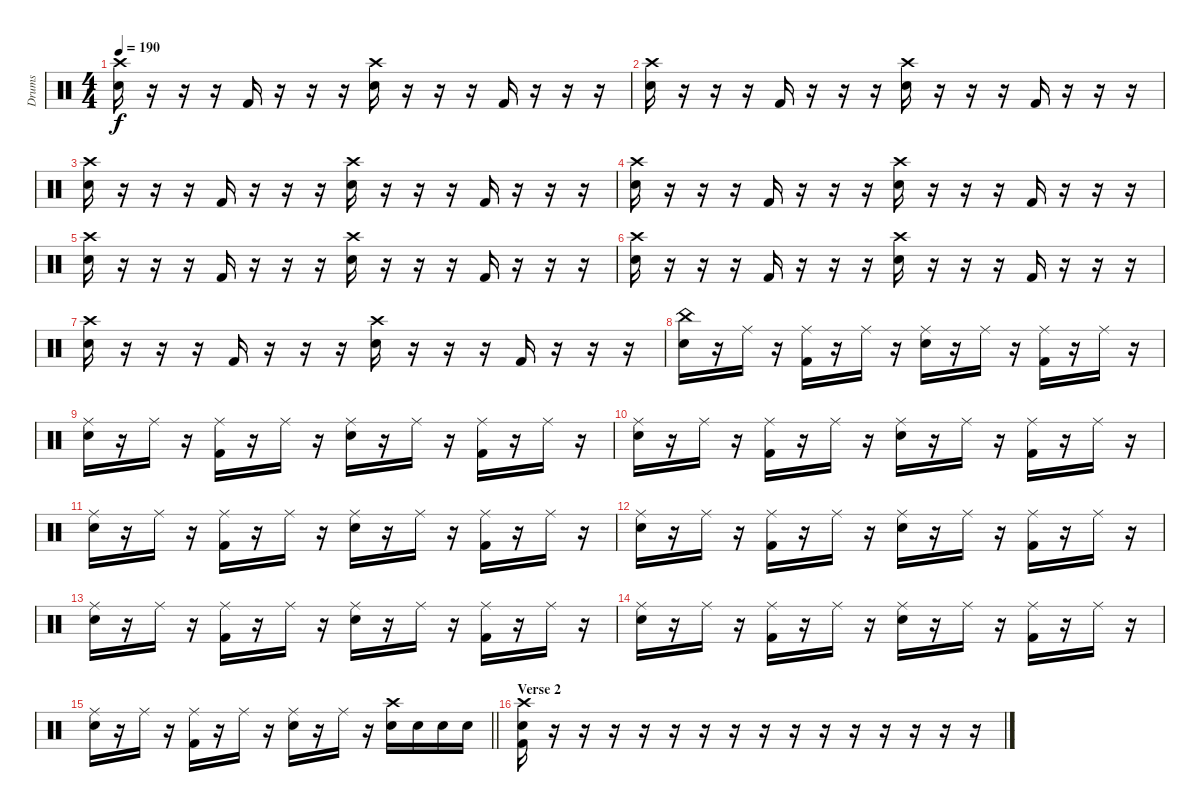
\track ("Drums" "Drums") {instrument percussion}
\staff {score}
\articulation defaults
\ts (4 4)
\tempo 190
\clef neutral
\ks c
("Crash high (hit)" "Electric Snare (hit)").16{dy f} r.16 r.16 r.16 "Kick (hit) 2".16 r.16 r.16 r.16 ("Crash high (hit)" "Electric Snare (hit)").16 r.16 r.16 r.16 "Kick (hit) 2".16 r.16 r.16 r.16 |
("Crash high (hit)" "Electric Snare (hit)").16 r.16 r.16 r.16 "Kick (hit) 2".16 r.16 r.16 r.16 ("Crash high (hit)" "Electric Snare (hit)").16 r.16 r.16 r.16 "Kick (hit) 2".16 r.16 r.16 r.16 |
("Crash high (hit)" "Electric Snare (hit)").16 r.16 r.16 r.16 "Kick (hit) 2".16 r.16 r.16 r.16 ("Crash high (hit)" "Electric Snare (hit)").16 r.16 r.16 r.16 "Kick (hit) 2".16 r.16 r.16 r.16 |
("Crash high (hit)" "Electric Snare (hit)").16 r.16 r.16 r.16 "Kick (hit) 2".16 r.16 r.16 r.16 ("Crash high (hit)" "Electric Snare (hit)").16 r.16 r.16 r.16 "Kick (hit) 2".16 r.16 r.16 r.16 |
("Crash high (hit)" "Electric Snare (hit)").16 r.16 r.16 r.16 "Kick (hit) 2".16 r.16 r.16 r.16 ("Crash high (hit)" "Electric Snare (hit)").16 r.16 r.16 r.16 "Kick (hit) 2".16 r.16 r.16 r.16 |
("Crash high (hit)" "Electric Snare (hit)").16 r.16 r.16 r.16 "Kick (hit) 2".16 r.16 r.16 r.16 ("Crash high (hit)" "Electric Snare (hit)").16 r.16 r.16 r.16 "Kick (hit) 2".16 r.16 r.16 r.16 |
("Crash high (hit)" "Electric Snare (hit)").16 r.16 r.16 r.16 "Kick (hit) 2".16 r.16 r.16 r.16 ("Crash high (hit)" "Electric Snare (hit)").16 r.16 r.16 r.16 "Kick (hit) 2".16 r.16 r.16 r.16 |
("China (hit)" "Electric Snare (hit)").16 r.16 "Ride (middle)".16 r.16 ("Ride (middle)" "Kick (hit) 2").16 r.16 "Ride (middle)".16 r.16 ("Ride (middle)" "Electric Snare (hit)").16 r.16 "Ride (middle)".16 r.16 ("Ride (middle)" "Kick (hit) 2").16 r.16 "Ride (middle)".16 r.16 |
("Ride (middle)" "Electric Snare (hit)").16 r.16 "Ride (middle)".16 r.16 ("Ride (middle)" "Kick (hit) 2").16 r.16 "Ride (middle)".16 r.16 ("Ride (middle)" "Electric Snare (hit)").16 r.16 "Ride (middle)".16 r.16 ("Ride (middle)" "Kick (hit) 2").16 r.16 "Ride (middle)".16 r.16 |
("Ride (middle)" "Electric Snare (hit)").16 r.16 "Ride (middle)".16 r.16 ("Ride (middle)" "Kick (hit) 2").16 r.16 "Ride (middle)".16 r.16 ("Ride (middle)" "Electric Snare (hit)").16 r.16 "Ride (middle)".16 r.16 ("Ride (middle)" "Kick (hit) 2").16 r.16 "Ride (middle)".16 r.16 |
("Ride (middle)" "Electric Snare (hit)").16 r.16 "Ride (middle)".16 r.16 ("Ride (middle)" "Kick (hit) 2").16 r.16 "Ride (middle)".16 r.16 ("Ride (middle)" "Electric Snare (hit)").16 r.16 "Ride (middle)".16 r.16 ("Ride (middle)" "Kick (hit) 2").16 r.16 "Ride (middle)".16 r.16 |
("Ride (middle)" "Electric Snare (hit)").16 r.16 "Ride (middle)".16 r.16 ("Ride (middle)" "Kick (hit) 2").16 r.16 "Ride (middle)".16 r.16 ("Ride (middle)" "Electric Snare (hit)").16 r.16 "Ride (middle)".16 r.16 ("Ride (middle)" "Kick (hit) 2").16 r.16 "Ride (middle)".16 r.16 |
("Ride (middle)" "Electric Snare (hit)").16 r.16 "Ride (middle)".16 r.16 ("Ride (middle)" "Kick (hit) 2").16 r.16 "Ride (middle)".16 r.16 ("Ride (middle)" "Electric Snare (hit)").16 r.16 "Ride (middle)".16 r.16 ("Ride (middle)" "Kick (hit) 2").16 r.16 "Ride (middle)".16 r.16 |
("Ride (middle)" "Electric Snare (hit)").16 r.16 "Ride (middle)".16 r.16 ("Ride (middle)" "Kick (hit) 2").16 r.16 "Ride (middle)".16 r.16 ("Ride (middle)" "Electric Snare (hit)").16 r.16 "Ride (middle)".16 r.16 ("Ride (middle)" "Kick (hit) 2").16 r.16 "Ride (middle)".16 r.16 |
\barLineRight lightlight
("Ride (middle)" "Electric Snare (hit)").16 r.16 "Ride (middle)".16 r.16 ("Ride (middle)" "Kick (hit) 2").16 r.16 "Ride (middle)".16 r.16 ("Ride (middle)" "Electric Snare (hit)").16 r.16 "Ride (middle)".16 r.16 ("Crash high (hit)" "Electric Snare (hit)").16 "Electric Snare (hit)".16 "Electric Snare (hit)".16 "Electric Snare (hit)".16 |
\section ("" "Verse 2")
("Crash high (hit)" "Electric Snare (hit)" "Kick (hit) 2").16 r.16 r.16 r.16 r.16 r.16 r.16 r.16 r.16 r.16 r.16 r.16 r.16 r.16 r.16 r.16
